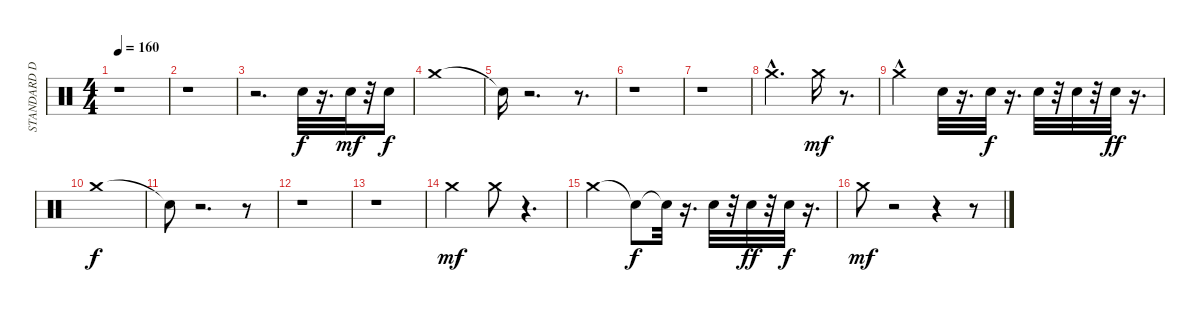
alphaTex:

\track ("STANDARD DRUMS" "STANDARD D") {instrument percussion}
\staff {score}
\articulation defaults
\ts (4 4)
\tempo 160
\clef neutral
\ks c
r.1{dy f} |
r.1 |
r.2{d} "Electric Snare (hit)".32 r.16{d} "Electric Snare (hit)".32{dy mf} r.32 "Electric Snare (hit)".16{dy f} |
"Crash medium (hit)".1 |
"Snare (hit)"{t}.16 r.2{d} r.8{d} |
r.1 |
r.1 |
"Crash medium (hit)"{hac}.2{d} "Crash medium (hit)".16{dy mf} r.8{d} |
"Crash medium (hit)"{hac}.2 "Electric Snare (hit)".32 r.16{d} "Electric Snare (hit)".32{dy f} r.16{d} "Electric Snare (hit)".32 r.32 "Electric Snare (hit)".32 r.32 "Electric Snare (hit)".32{dy ff} r.16{d} |
"Crash medium (hit)".1{dy f} |
"Snare (hit)"{t}.8 r.2{d} r.8 |
r.1 |
r.1 |
"Crash medium (hit)".2{dy mf} "Crash medium (hit)".8 r.4{d} |
"Crash medium (hit)".2 "Snare (hit)"{t}.8{dy f} "Snare (hit)"{t}.32 r.16{d} "Electric Snare (hit)".32 r.32 "Electric Snare (hit)".32{dy ff} r.32 "Electric Snare (hit)".32{dy f} r.16{d} |
"Crash medium (hit)".8{dy mf} r.2 r.4 r.8
